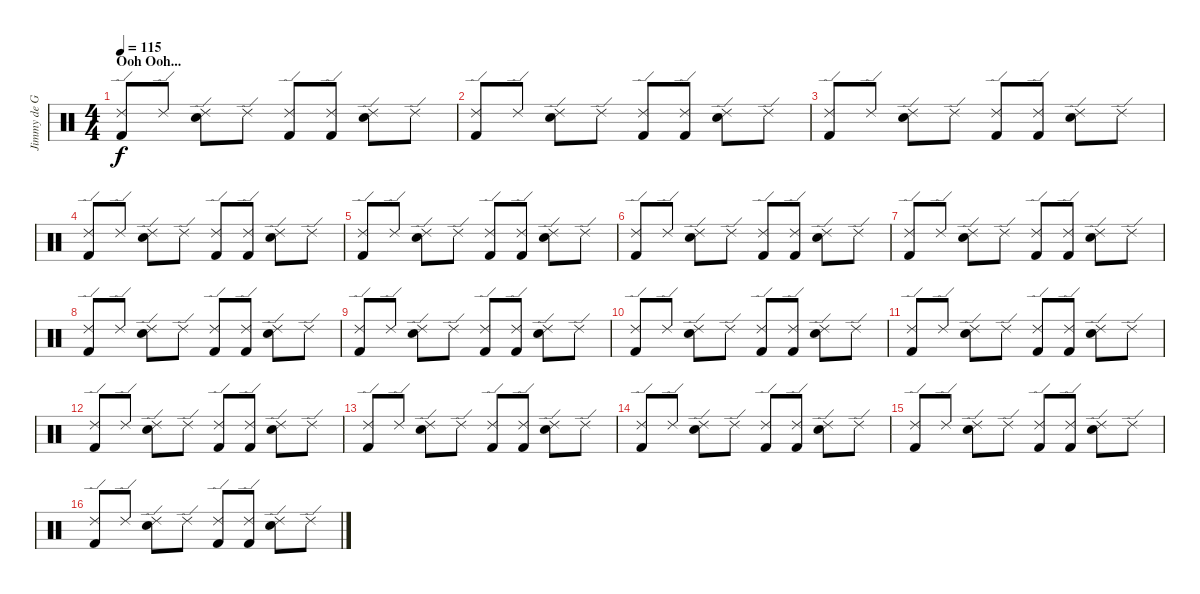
\track ("Jimmy de Grasso" "Jimmy de G") {instrument percussion}
\staff {score}
\articulation defaults
\ts (4 4)
\section ("" "Ooh Ooh...")
\tempo 115
\clef neutral
\ks c
("Ride (edge) 2" "Kick (hit) 2").8{dy f} "Ride (edge) 2".8 ("Ride (edge) 2" "Snare (hit) 2").8 "Ride (edge) 2".8 ("Ride (edge) 2" "Kick (hit) 2").8 ("Ride (edge) 2" "Kick (hit) 2").8 ("Ride (edge) 2" "Snare (hit) 2").8 "Ride (edge) 2".8 |
("Ride (edge) 2" "Kick (hit) 2").8 "Ride (edge) 2".8 ("Ride (edge) 2" "Snare (hit) 2").8 "Ride (edge) 2".8 ("Ride (edge) 2" "Kick (hit) 2").8 ("Ride (edge) 2" "Kick (hit) 2").8 ("Ride (edge) 2" "Snare (hit) 2").8 "Ride (edge) 2".8 |
("Ride (edge) 2" "Kick (hit) 2").8 "Ride (edge) 2".8 ("Ride (edge) 2" "Snare (hit) 2").8 "Ride (edge) 2".8 ("Ride (edge) 2" "Kick (hit) 2").8 ("Ride (edge) 2" "Kick (hit) 2").8 ("Ride (edge) 2" "Snare (hit) 2").8 "Ride (edge) 2".8 |
("Ride (edge) 2" "Kick (hit) 2").8 "Ride (edge) 2".8 ("Ride (edge) 2" "Snare (hit) 2").8 "Ride (edge) 2".8 ("Ride (edge) 2" "Kick (hit) 2").8 ("Ride (edge) 2" "Kick (hit) 2").8 ("Ride (edge) 2" "Snare (hit) 2").8 "Ride (edge) 2".8 |
("Ride (edge) 2" "Kick (hit) 2").8 "Ride (edge) 2".8 ("Ride (edge) 2" "Snare (hit) 2").8 "Ride (edge) 2".8 ("Ride (edge) 2" "Kick (hit) 2").8 ("Ride (edge) 2" "Kick (hit) 2").8 ("Ride (edge) 2" "Snare (hit) 2").8 "Ride (edge) 2".8 |
("Ride (edge) 2" "Kick (hit) 2").8 "Ride (edge) 2".8 ("Ride (edge) 2" "Snare (hit) 2").8 "Ride (edge) 2".8 ("Ride (edge) 2" "Kick (hit) 2").8 ("Ride (edge) 2" "Kick (hit) 2").8 ("Ride (edge) 2" "Snare (hit) 2").8 "Ride (edge) 2".8 |
("Ride (edge) 2" "Kick (hit) 2").8 "Ride (edge) 2".8 ("Ride (edge) 2" "Snare (hit) 2").8 "Ride (edge) 2".8 ("Ride (edge) 2" "Kick (hit) 2").8 ("Ride (edge) 2" "Kick (hit) 2").8 ("Ride (edge) 2" "Snare (hit) 2").8 "Ride (edge) 2".8 |
("Ride (edge) 2" "Kick (hit) 2").8 "Ride (edge) 2".8 ("Ride (edge) 2" "Snare (hit) 2").8 "Ride (edge) 2".8 ("Ride (edge) 2" "Kick (hit) 2").8 ("Ride (edge) 2" "Kick (hit) 2").8 ("Ride (edge) 2" "Snare (hit) 2").8 "Ride (edge) 2".8 |
("Ride (edge) 2" "Kick (hit) 2").8 "Ride (edge) 2".8 ("Ride (edge) 2" "Snare (hit) 2").8 "Ride (edge) 2".8 ("Ride (edge) 2" "Kick (hit) 2").8 ("Ride (edge) 2" "Kick (hit) 2").8 ("Ride (edge) 2" "Snare (hit) 2").8 "Ride (edge) 2".8 |
("Ride (edge) 2" "Kick (hit) 2").8 "Ride (edge) 2".8 ("Ride (edge) 2" "Snare (hit) 2").8 "Ride (edge) 2".8 ("Ride (edge) 2" "Kick (hit) 2").8 ("Ride (edge) 2" "Kick (hit) 2").8 ("Ride (edge) 2" "Snare (hit) 2").8 "Ride (edge) 2".8 |
("Ride (edge) 2" "Kick (hit) 2").8 "Ride (edge) 2".8 ("Ride (edge) 2" "Snare (hit) 2").8 "Ride (edge) 2".8 ("Ride (edge) 2" "Kick (hit) 2").8 ("Ride (edge) 2" "Kick (hit) 2").8 ("Ride (edge) 2" "Snare (hit) 2").8 "Ride (edge) 2".8 |
("Ride (edge) 2" "Kick (hit) 2").8 "Ride (edge) 2".8 ("Ride (edge) 2" "Snare (hit) 2").8 "Ride (edge) 2".8 ("Ride (edge) 2" "Kick (hit) 2").8 ("Ride (edge) 2" "Kick (hit) 2").8 ("Ride (edge) 2" "Snare (hit) 2").8 "Ride (edge) 2".8 |
("Ride (edge) 2" "Kick (hit) 2").8 "Ride (edge) 2".8 ("Ride (edge) 2" "Snare (hit) 2").8 "Ride (edge) 2".8 ("Ride (edge) 2" "Kick (hit) 2").8 ("Ride (edge) 2" "Kick (hit) 2").8 ("Ride (edge) 2" "Snare (hit) 2").8 "Ride (edge) 2".8 |
("Ride (edge) 2" "Kick (hit) 2").8 "Ride (edge) 2".8 ("Ride (edge) 2" "Snare (hit) 2").8 "Ride (edge) 2".8 ("Ride (edge) 2" "Kick (hit) 2").8 ("Ride (edge) 2" "Kick (hit) 2").8 ("Ride (edge) 2" "Snare (hit) 2").8 "Ride (edge) 2".8 |
("Ride (edge) 2" "Kick (hit) 2").8 "Ride (edge) 2".8 ("Ride (edge) 2" "Snare (hit) 2").8 "Ride (edge) 2".8 ("Ride (edge) 2" "Kick (hit) 2").8 ("Ride (edge) 2" "Kick (hit) 2").8 ("Ride (edge) 2" "Snare (hit) 2").8 "Ride (edge) 2".8 |
("Ride (edge) 2" "Kick (hit) 2").8 "Ride (edge) 2".8 ("Ride (edge) 2" "Snare (hit) 2").8 "Ride (edge) 2".8 ("Ride (edge) 2" "Kick (hit) 2").8 ("Ride (edge) 2" "Kick (hit) 2").8 ("Ride (edge) 2" "Snare (hit) 2").8 "Ride (edge) 2".8
